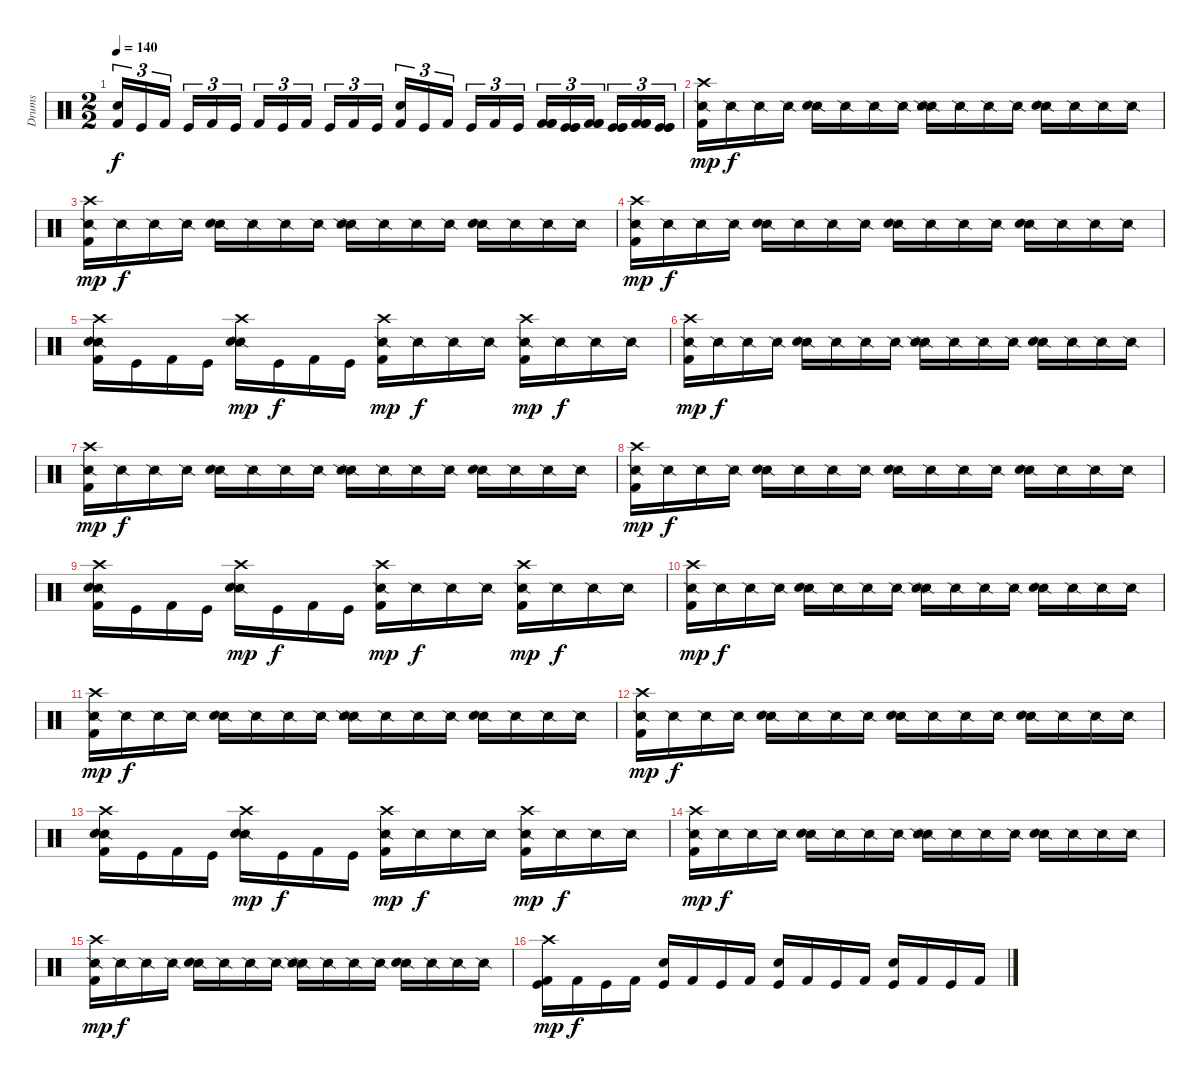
\track ("Drums" "Drums") {instrument percussion}
\staff {score}
\articulation defaults
\ts (2 2)
\tempo 140
\clef neutral
\ks c
("Kick (hit) 2" "Snare (hit) 2").16{tu (3 2) dy f} "Kick (hit)".16{tu (3 2)} "Kick (hit) 2".16{tu (3 2)} "Kick (hit)".16{tu (3 2)} "Kick (hit) 2".16{tu (3 2)} "Kick (hit)".16{tu (3 2)} "Kick (hit) 2".16{tu (3 2)} "Kick (hit)".16{tu (3 2)} "Kick (hit) 2".16{tu (3 2)} "Kick (hit)".16{tu (3 2)} "Kick (hit) 2".16{tu (3 2)} "Kick (hit)".16{tu (3 2)} ("Kick (hit) 2" "Snare (hit) 2").16{tu (3 2)} "Kick (hit)".16{tu (3 2)} "Kick (hit) 2".16{tu (3 2)} "Kick (hit)".16{tu (3 2)} "Kick (hit) 2".16{tu (3 2)} "Kick (hit)".16{tu (3 2)} ("Kick (hit) 2" "Kick (hit) 2" "Kick (hit) 2").16{tu (3 2)} ("Kick (hit)" "Kick (hit)" "Kick (hit)").16{tu (3 2)} ("Kick (hit) 2" "Kick (hit) 2" "Kick (hit) 2").16{tu (3 2)} ("Kick (hit)" "Kick (hit)" "Kick (hit)").16{tu (3 2)} ("Kick (hit) 2" "Kick (hit) 2" "Kick (hit) 2").16{tu (3 2)} ("Kick (hit)" "Kick (hit)" "Kick (hit)").16{tu (3 2)} |
("Snare (side stick) 2" "Kick (hit) 2" "Crash high (hit)").16{dy mp} "Snare (side stick) 2".16{dy f} "Snare (side stick) 2".16 "Snare (side stick) 2".16 ("Snare (side stick) 2" "Snare (hit) 2").16 "Snare (side stick) 2".16 "Snare (side stick) 2".16 "Snare (side stick) 2".16 ("Snare (side stick) 2" "Snare (side stick) 2").16 "Snare (side stick) 2".16 "Snare (side stick) 2".16 "Snare (side stick) 2".16 ("Snare (side stick) 2" "Snare (hit) 2").16 "Snare (side stick) 2".16 "Snare (side stick) 2".16 "Snare (side stick) 2".16 |
("Snare (side stick) 2" "Kick (hit) 2" "Crash high (hit)").16{dy mp} "Snare (side stick) 2".16{dy f} "Snare (side stick) 2".16 "Snare (side stick) 2".16 ("Snare (side stick) 2" "Snare (hit) 2").16 "Snare (side stick) 2".16 "Snare (side stick) 2".16 "Snare (side stick) 2".16 ("Snare (side stick) 2" "Snare (side stick) 2").16 "Snare (side stick) 2".16 "Snare (side stick) 2".16 "Snare (side stick) 2".16 ("Snare (side stick) 2" "Snare (hit) 2").16 "Snare (side stick) 2".16 "Snare (side stick) 2".16 "Snare (side stick) 2".16 |
("Snare (side stick) 2" "Kick (hit) 2" "Crash high (hit)").16{dy mp} "Snare (side stick) 2".16{dy f} "Snare (side stick) 2".16 "Snare (side stick) 2".16 ("Snare (side stick) 2" "Snare (hit) 2").16 "Snare (side stick) 2".16 "Snare (side stick) 2".16 "Snare (side stick) 2".16 ("Snare (side stick) 2" "Snare (hit) 2").16 "Snare (side stick) 2".16 "Snare (side stick) 2".16 "Snare (side stick) 2".16 ("Snare (side stick) 2" "Snare (hit) 2").16 "Snare (side stick) 2".16 "Snare (side stick) 2".16 "Snare (side stick) 2".16 |
("Snare (side stick) 2" "Snare (hit) 2" "Kick (hit) 2" "Crash high (hit)").16 "Kick (hit)".16 "Kick (hit) 2".16 "Kick (hit)".16 ("Snare (side stick) 2" "Snare (hit) 2" "Crash high (hit)").16{dy mp} "Kick (hit)".16{dy f} "Kick (hit) 2".16 "Kick (hit)".16 ("Snare (side stick) 2" "Kick (hit) 2" "Crash high (hit)").16{dy mp} "Snare (side stick) 2".16{dy f} "Snare (side stick) 2".16 "Snare (side stick) 2".16 ("Snare (side stick) 2" "Kick (hit) 2" "Crash high (hit)").16{dy mp} "Snare (side stick) 2".16{dy f} "Snare (side stick) 2".16 "Snare (side stick) 2".16 |
("Snare (side stick) 2" "Kick (hit) 2" "Crash high (hit)").16{dy mp} "Snare (side stick) 2".16{dy f} "Snare (side stick) 2".16 "Snare (side stick) 2".16 ("Snare (side stick) 2" "Snare (hit) 2").16 "Snare (side stick) 2".16 "Snare (side stick) 2".16 "Snare (side stick) 2".16 ("Snare (side stick) 2" "Snare (side stick) 2").16 "Snare (side stick) 2".16 "Snare (side stick) 2".16 "Snare (side stick) 2".16 ("Snare (side stick) 2" "Snare (hit) 2").16 "Snare (side stick) 2".16 "Snare (side stick) 2".16 "Snare (side stick) 2".16 |
("Snare (side stick) 2" "Kick (hit) 2" "Crash high (hit)").16{dy mp} "Snare (side stick) 2".16{dy f} "Snare (side stick) 2".16 "Snare (side stick) 2".16 ("Snare (side stick) 2" "Snare (hit) 2").16 "Snare (side stick) 2".16 "Snare (side stick) 2".16 "Snare (side stick) 2".16 ("Snare (side stick) 2" "Snare (side stick) 2").16 "Snare (side stick) 2".16 "Snare (side stick) 2".16 "Snare (side stick) 2".16 ("Snare (side stick) 2" "Snare (hit) 2").16 "Snare (side stick) 2".16 "Snare (side stick) 2".16 "Snare (side stick) 2".16 |
("Snare (side stick) 2" "Kick (hit) 2" "Crash high (hit)").16{dy mp} "Snare (side stick) 2".16{dy f} "Snare (side stick) 2".16 "Snare (side stick) 2".16 ("Snare (side stick) 2" "Snare (hit) 2").16 "Snare (side stick) 2".16 "Snare (side stick) 2".16 "Snare (side stick) 2".16 ("Snare (side stick) 2" "Snare (hit) 2").16 "Snare (side stick) 2".16 "Snare (side stick) 2".16 "Snare (side stick) 2".16 ("Snare (side stick) 2" "Snare (hit) 2").16 "Snare (side stick) 2".16 "Snare (side stick) 2".16 "Snare (side stick) 2".16 |
("Snare (side stick) 2" "Snare (hit) 2" "Kick (hit) 2" "Crash high (hit)").16 "Kick (hit)".16 "Kick (hit) 2".16 "Kick (hit)".16 ("Snare (side stick) 2" "Snare (hit) 2" "Crash high (hit)").16{dy mp} "Kick (hit)".16{dy f} "Kick (hit) 2".16 "Kick (hit)".16 ("Snare (side stick) 2" "Kick (hit) 2" "Crash high (hit)").16{dy mp} "Snare (side stick) 2".16{dy f} "Snare (side stick) 2".16 "Snare (side stick) 2".16 ("Snare (side stick) 2" "Kick (hit) 2" "Crash high (hit)").16{dy mp} "Snare (side stick) 2".16{dy f} "Snare (side stick) 2".16 "Snare (side stick) 2".16 |
("Snare (side stick) 2" "Kick (hit) 2" "Crash high (hit)").16{dy mp} "Snare (side stick) 2".16{dy f} "Snare (side stick) 2".16 "Snare (side stick) 2".16 ("Snare (side stick) 2" "Snare (hit) 2").16 "Snare (side stick) 2".16 "Snare (side stick) 2".16 "Snare (side stick) 2".16 ("Snare (side stick) 2" "Snare (side stick) 2").16 "Snare (side stick) 2".16 "Snare (side stick) 2".16 "Snare (side stick) 2".16 ("Snare (side stick) 2" "Snare (hit) 2").16 "Snare (side stick) 2".16 "Snare (side stick) 2".16 "Snare (side stick) 2".16 |
("Snare (side stick) 2" "Kick (hit) 2" "Crash high (hit)").16{dy mp} "Snare (side stick) 2".16{dy f} "Snare (side stick) 2".16 "Snare (side stick) 2".16 ("Snare (side stick) 2" "Snare (hit) 2").16 "Snare (side stick) 2".16 "Snare (side stick) 2".16 "Snare (side stick) 2".16 ("Snare (side stick) 2" "Snare (side stick) 2").16 "Snare (side stick) 2".16 "Snare (side stick) 2".16 "Snare (side stick) 2".16 ("Snare (side stick) 2" "Snare (hit) 2").16 "Snare (side stick) 2".16 "Snare (side stick) 2".16 "Snare (side stick) 2".16 |
("Snare (side stick) 2" "Kick (hit) 2" "Crash high (hit)").16{dy mp} "Snare (side stick) 2".16{dy f} "Snare (side stick) 2".16 "Snare (side stick) 2".16 ("Snare (side stick) 2" "Snare (hit) 2").16 "Snare (side stick) 2".16 "Snare (side stick) 2".16 "Snare (side stick) 2".16 ("Snare (side stick) 2" "Snare (hit) 2").16 "Snare (side stick) 2".16 "Snare (side stick) 2".16 "Snare (side stick) 2".16 ("Snare (side stick) 2" "Snare (hit) 2").16 "Snare (side stick) 2".16 "Snare (side stick) 2".16 "Snare (side stick) 2".16 |
("Snare (side stick) 2" "Snare (hit) 2" "Kick (hit) 2" "Crash high (hit)").16 "Kick (hit)".16 "Kick (hit) 2".16 "Kick (hit)".16 ("Snare (side stick) 2" "Snare (hit) 2" "Crash high (hit)").16{dy mp} "Kick (hit)".16{dy f} "Kick (hit) 2".16 "Kick (hit)".16 ("Snare (side stick) 2" "Kick (hit) 2" "Crash high (hit)").16{dy mp} "Snare (side stick) 2".16{dy f} "Snare (side stick) 2".16 "Snare (side stick) 2".16 ("Snare (side stick) 2" "Kick (hit) 2" "Crash high (hit)").16{dy mp} "Snare (side stick) 2".16{dy f} "Snare (side stick) 2".16 "Snare (side stick) 2".16 |
("Snare (side stick) 2" "Kick (hit) 2" "Crash high (hit)").16{dy mp} "Snare (side stick) 2".16{dy f} "Snare (side stick) 2".16 "Snare (side stick) 2".16 ("Snare (side stick) 2" "Snare (hit) 2").16 "Snare (side stick) 2".16 "Snare (side stick) 2".16 "Snare (side stick) 2".16 ("Snare (side stick) 2" "Snare (side stick) 2").16 "Snare (side stick) 2".16 "Snare (side stick) 2".16 "Snare (side stick) 2".16 ("Snare (side stick) 2" "Snare (hit) 2").16 "Snare (side stick) 2".16 "Snare (side stick) 2".16 "Snare (side stick) 2".16 |
("Snare (side stick) 2" "Kick (hit) 2" "Crash high (hit)").16{dy mp} "Snare (side stick) 2".16{dy f} "Snare (side stick) 2".16 "Snare (side stick) 2".16 ("Snare (side stick) 2" "Snare (hit) 2").16 "Snare (side stick) 2".16 "Snare (side stick) 2".16 "Snare (side stick) 2".16 ("Snare (side stick) 2" "Snare (side stick) 2").16 "Snare (side stick) 2".16 "Snare (side stick) 2".16 "Snare (side stick) 2".16 ("Snare (side stick) 2" "Snare (hit) 2").16 "Snare (side stick) 2".16 "Snare (side stick) 2".16 "Snare (side stick) 2".16 |
("Kick (hit)" "Kick (hit) 2" "Crash high (hit)").16{dy mp} "Kick (hit) 2".16{dy f} "Kick (hit)".16 "Kick (hit) 2".16 ("Kick (hit)" "Snare (hit) 2").16 "Kick (hit) 2".16 "Kick (hit)".16 "Kick (hit) 2".16 ("Kick (hit)" "Snare (hit) 2").16 "Kick (hit) 2".16 "Kick (hit)".16 "Kick (hit) 2".16 ("Kick (hit)" "Snare (hit) 2").16 "Kick (hit) 2".16 "Kick (hit)".16 "Kick (hit) 2".16
